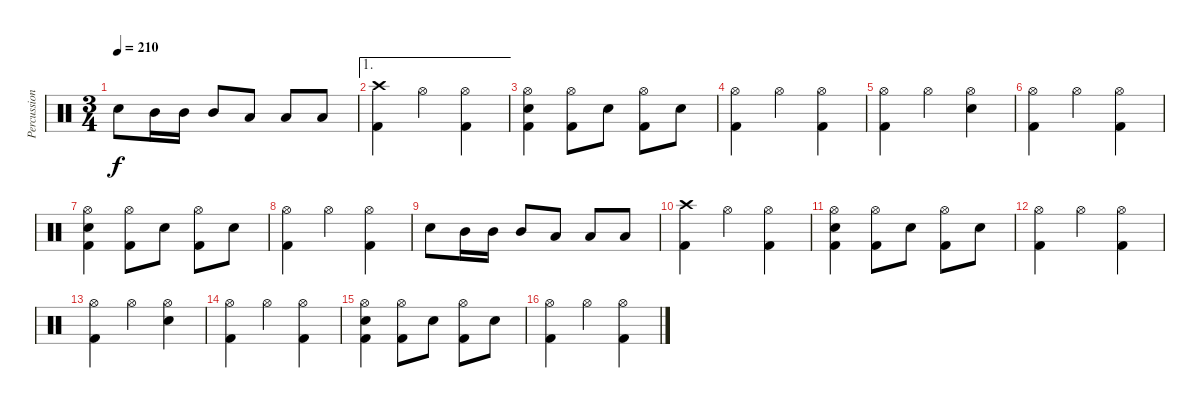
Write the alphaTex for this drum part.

\track ("Percussion" "Percussion") {instrument percussion}
\staff {score}
\articulation defaults
\ts (3 4)
\tempo 210
\clef neutral
\ks c "Electric Snare (hit)".8{dy f} "Mid Tom (hit)".16 "Mid Tom (hit)".16 "Mid Tom (hit)".8 "Low Tom (hit)".8 "Low Tom (hit)".8 "Low Tom (hit)".8
|
\ae 1
("Crash high (hit)" "Kick (hit) 2").4 "Hi-Hat (open)".4 ("Hi-Hat (open)" "Kick (hit) 2").4 |
("Hi-Hat (open)" "Electric Snare (hit)" "Kick (hit) 2").4 ("Hi-Hat (open)" "Kick (hit) 2").8 "Electric Snare (hit)".8 ("Hi-Hat (open)" "Kick (hit) 2").8 "Electric Snare (hit)".8 |
("Hi-Hat (open)" "Kick (hit) 2").4 "Hi-Hat (open)".4 ("Hi-Hat (open)" "Kick (hit) 2").4 |
("Hi-Hat (open)" "Kick (hit) 2").4 "Hi-Hat (open)".4 ("Hi-Hat (open)" "Electric Snare (hit)").4 |
("Hi-Hat (open)" "Kick (hit) 2").4 "Hi-Hat (open)".4 ("Hi-Hat (open)" "Kick (hit) 2").4 |
("Hi-Hat (open)" "Electric Snare (hit)" "Kick (hit) 2").4 ("Hi-Hat (open)" "Kick (hit) 2").8 "Electric Snare (hit)".8 ("Hi-Hat (open)" "Kick (hit) 2").8 "Electric Snare (hit)".8 |
("Hi-Hat (open)" "Kick (hit) 2").4 "Hi-Hat (open)".4 ("Hi-Hat (open)" "Kick (hit) 2").4 |
"Electric Snare (hit)".8 "Mid Tom (hit)".16 "Mid Tom (hit)".16 "Mid Tom (hit)".8 "Low Tom (hit)".8 "Low Tom (hit)".8 "Low Tom (hit)".8 |
("Crash high (hit)" "Kick (hit) 2").4 "Hi-Hat (open)".4 ("Hi-Hat (open)" "Kick (hit) 2").4 |
("Hi-Hat (open)" "Electric Snare (hit)" "Kick (hit) 2").4 ("Hi-Hat (open)" "Kick (hit) 2").8 "Electric Snare (hit)".8 ("Hi-Hat (open)" "Kick (hit) 2").8 "Electric Snare (hit)".8 |
("Hi-Hat (open)" "Kick (hit) 2").4 "Hi-Hat (open)".4 ("Hi-Hat (open)" "Kick (hit) 2").4 |
("Hi-Hat (open)" "Kick (hit) 2").4 "Hi-Hat (open)".4 ("Hi-Hat (open)" "Electric Snare (hit)").4 |
("Hi-Hat (open)" "Kick (hit) 2").4 "Hi-Hat (open)".4 ("Hi-Hat (open)" "Kick (hit) 2").4 |
("Hi-Hat (open)" "Electric Snare (hit)" "Kick (hit) 2").4 ("Hi-Hat (open)" "Kick (hit) 2").8 "Electric Snare (hit)".8 ("Hi-Hat (open)" "Kick (hit) 2").8 "Electric Snare (hit)".8 |
("Hi-Hat (open)" "Kick (hit) 2").4 "Hi-Hat (open)".4 ("Hi-Hat (open)" "Kick (hit) 2").4
